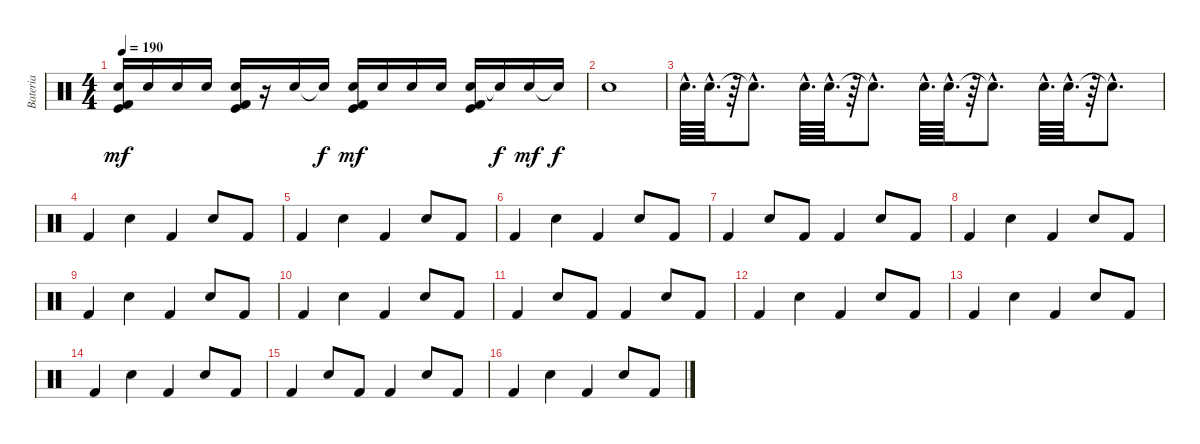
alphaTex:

\track ("Bateria" "Bateria") {instrument percussion}
\staff {score}
\articulation defaults
\ts (4 4)
\tempo 190
\clef neutral
\ks c
("Electric Snare (hit)" "Kick (hit)" "Kick (hit) 2").16{dy mf} "Electric Snare (hit)".16 "Electric Snare (hit)".16 "Electric Snare (hit)".16 ("Electric Snare (hit)" "Kick (hit)" "Kick (hit) 2").16 r.16 "Electric Snare (hit)".16 "Electric Snare (hit)"{t}.16{dy f} ("Electric Snare (hit)" "Kick (hit)" "Kick (hit) 2").16{dy mf} "Electric Snare (hit)".16 "Electric Snare (hit)".16 "Electric Snare (hit)".16 ("Electric Snare (hit)" "Kick (hit)" "Kick (hit) 2").16 "Electric Snare (hit)"{t}.16{dy f} "Electric Snare (hit)".16{dy mf} "Electric Snare (hit)"{t}.16{dy f} |
"Snare (hit) 2".1 |
"Electric Snare (hit)"{hac}.64{d} "Electric Snare (hit)"{hac}.64{d} r.64 "Snare (hit)"{hac t}.8{d} "Electric Snare (hit)"{hac}.64{d} "Electric Snare (hit)"{hac}.64{d} r.64 "Electric Snare (hit)"{hac t}.8{d} "Electric Snare (hit)"{hac}.64{d} "Electric Snare (hit)"{hac}.64{d} r.64 "Electric Snare (hit)"{hac t}.8{d} "Electric Snare (hit)"{hac}.64{d} "Electric Snare (hit)"{hac}.64{d} r.64 "Electric Snare (hit)"{hac t}.8{d} |
"Kick (hit) 2".4 "Snare (hit) 2".4 "Kick (hit) 2".4 "Snare (hit) 2".8 "Kick (hit) 2".8 |
"Kick (hit) 2".4 "Snare (hit) 2".4 "Kick (hit) 2".4 "Snare (hit) 2".8 "Kick (hit) 2".8 |
"Kick (hit) 2".4 "Snare (hit) 2".4 "Kick (hit) 2".4 "Snare (hit) 2".8 "Kick (hit) 2".8 |
"Kick (hit) 2".4 "Snare (hit) 2".8 "Kick (hit) 2".8 "Kick (hit) 2".4 "Snare (hit) 2".8 "Kick (hit) 2".8 |
"Kick (hit) 2".4 "Snare (hit) 2".4 "Kick (hit) 2".4 "Snare (hit) 2".8 "Kick (hit) 2".8 |
"Kick (hit) 2".4 "Snare (hit) 2".4 "Kick (hit) 2".4 "Snare (hit) 2".8 "Kick (hit) 2".8 |
"Kick (hit) 2".4 "Snare (hit) 2".4 "Kick (hit) 2".4 "Snare (hit) 2".8 "Kick (hit) 2".8 |
"Kick (hit) 2".4 "Snare (hit) 2".8 "Kick (hit) 2".8 "Kick (hit) 2".4 "Snare (hit) 2".8 "Kick (hit) 2".8 |
"Kick (hit) 2".4 "Snare (hit) 2".4 "Kick (hit) 2".4 "Snare (hit) 2".8 "Kick (hit) 2".8 |
"Kick (hit) 2".4 "Snare (hit) 2".4 "Kick (hit) 2".4 "Snare (hit) 2".8 "Kick (hit) 2".8 |
"Kick (hit) 2".4 "Snare (hit) 2".4 "Kick (hit) 2".4 "Snare (hit) 2".8 "Kick (hit) 2".8 |
"Kick (hit) 2".4 "Snare (hit) 2".8 "Kick (hit) 2".8 "Kick (hit) 2".4 "Snare (hit) 2".8 "Kick (hit) 2".8 |
"Kick (hit) 2".4 "Snare (hit) 2".4 "Kick (hit) 2".4 "Snare (hit) 2".8 "Kick (hit) 2".8
